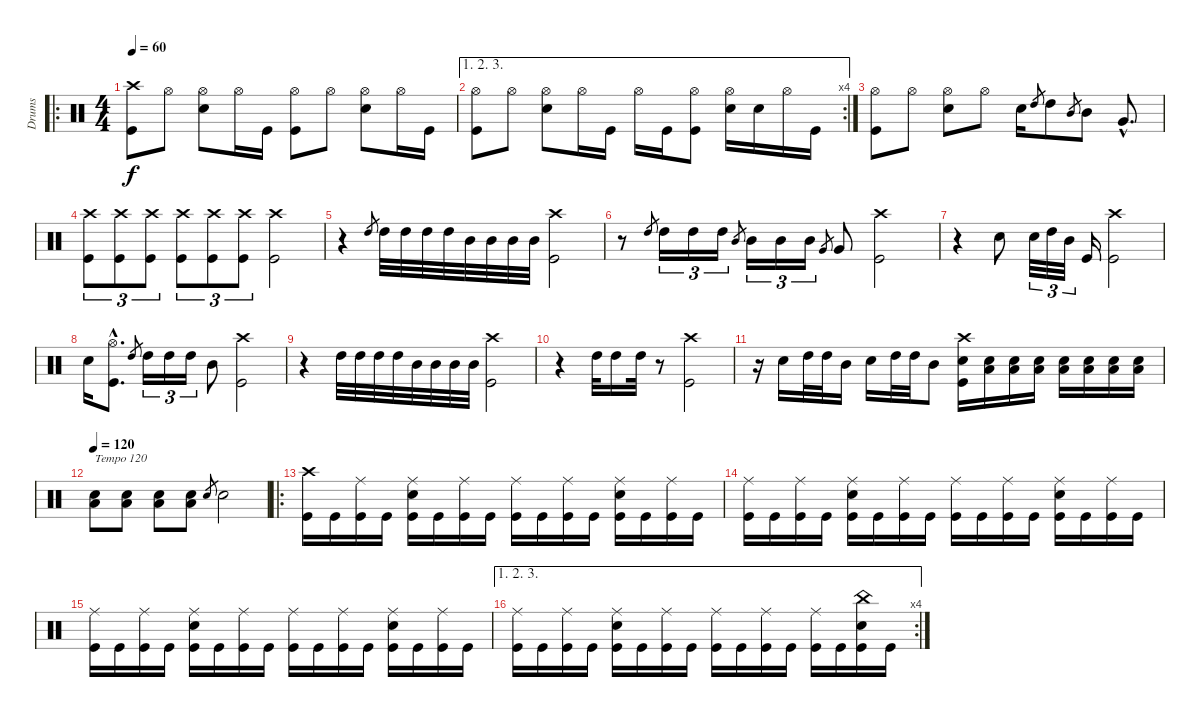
\track ("Drums" "Drums") {instrument percussion}
\staff {score}
\articulation defaults
\ro
\ts (4 4)
\tempo 60
\clef neutral
\ks c
("Crash high (hit)" "Kick (hit)").8{dy f} "Hi-Hat (open)".8 ("Hi-Hat (open)" "Electric Snare (hit)").8 "Hi-Hat (open)".16 "Kick (hit)".16 ("Hi-Hat (open)" "Kick (hit)").8 "Hi-Hat (open)".8 ("Hi-Hat (open)" "Electric Snare (hit)").8 "Hi-Hat (open)".16 "Kick (hit)".16 |
\ae (1 2 3)
\rc 4
("Hi-Hat (open)" "Kick (hit)").8 "Hi-Hat (open)".8 ("Hi-Hat (open)" "Electric Snare (hit)").8 "Hi-Hat (open)".16 "Kick (hit)".16 "Hi-Hat (open)".16 "Kick (hit)".16 ("Hi-Hat (open)" "Kick (hit)").8 ("Hi-Hat (open)" "Electric Snare (hit)").16 "Electric Snare (hit)".16 "Hi-Hat (open)".16 "Kick (hit)".16 |
("Hi-Hat (open)" "Kick (hit)").8 "Hi-Hat (open)".8 ("Hi-Hat (open)" "Electric Snare (hit)").8 "Hi-Hat (open)".8 "Electric Snare (hit)".16 "High Tom (hit)".8{gr} "High Tom (hit)".8 "Mid Tom (hit)".8{gr} "Mid Tom (hit)".8 "Very Low Tom (hit)"{hac}.8{d} |
("Crash high (hit)" "Kick (hit)").8{tu (3 2)} ("Crash high (hit)" "Kick (hit)").8{tu (3 2)} ("Crash high (hit)" "Kick (hit)").8{tu (3 2)} ("Crash high (hit)" "Kick (hit)").8{tu (3 2)} ("Crash high (hit)" "Kick (hit)").8{tu (3 2)} ("Crash high (hit)" "Kick (hit)").8{tu (3 2)} ("Crash high (hit)" "Kick (hit)").2 |
r.4 "High Tom (hit)".8{gr} "High Tom (hit)".32 "High Tom (hit)".32 "High Tom (hit)".32 "High Tom (hit)".32 "Mid Tom (hit)".32 "Mid Tom (hit)".32 "Mid Tom (hit)".32 "Mid Tom (hit)".32 ("Crash high (hit)" "Kick (hit)").2 |
r.8 "High Tom (hit)".8{gr} "High Tom (hit)".16{tu (3 2)} "High Tom (hit)".16{tu (3 2)} "High Tom (hit)".16{tu (3 2)} "Mid Tom (hit)".8{gr} "Mid Tom (hit)".16{tu (3 2)} "Mid Tom (hit)".16{tu (3 2)} "Mid Tom (hit)".16{tu (3 2)} "Very Low Tom (hit)".8{gr} "Very Low Tom (hit)".8 ("Crash high (hit)" "Kick (hit)").2 |
r.4 "Electric Snare (hit)".8 "Electric Snare (hit)".32{tu (3 2)} "High Tom (hit)".32{tu (3 2)} "Mid Tom (hit)".32{tu (3 2)} "Kick (hit)".16 ("Crash high (hit)" "Kick (hit)").2 |
"Electric Snare (hit)".16 ("Hi-Hat (open)"{hac} "Kick (hit)"{hac}).8{d} "High Tom (hit)".8{gr} "High Tom (hit)".16{tu (3 2)} "High Tom (hit)".16{tu (3 2)} "High Tom (hit)".16{tu (3 2)} "Mid Tom (hit)".8 ("Crash high (hit)" "Kick (hit)").2 |
r.4 "High Tom (hit)".32 "High Tom (hit)".32 "High Tom (hit)".32 "High Tom (hit)".32 "Mid Tom (hit)".32 "Mid Tom (hit)".32 "Mid Tom (hit)".32 "Mid Tom (hit)".32 ("Crash high (hit)" "Kick (hit)").2 |
r.4 "High Tom (hit)".32 "High Tom (hit)".16 "High Tom (hit)".32 r.8 ("Crash high (hit)" "Kick (hit)").2 |
r.16 "Electric Snare (hit)".16 "High Tom (hit)".32 "High Tom (hit)".32 "Mid Tom (hit)".16 "Electric Snare (hit)".16 "High Tom (hit)".32 "High Tom (hit)".32 "Mid Tom (hit)".8 ("Crash high (hit)" "Electric Snare (hit)" "Kick (hit)").16 ("Low Tom (hit)" "Electric Snare (hit)").16 ("Low Tom (hit)" "Electric Snare (hit)").16 ("Low Tom (hit)" "Electric Snare (hit)").16 ("Low Tom (hit)" "Electric Snare (hit)").16 ("Low Tom (hit)" "Electric Snare (hit)").16 ("Low Tom (hit)" "Electric Snare (hit)").16 ("Low Tom (hit)" "Electric Snare (hit)").16 |
\tempo 120
("Low Tom (hit)" "Electric Snare (hit)").8{txt "Tempo 120"} ("Low Tom (hit)" "Electric Snare (hit)").8 ("Low Tom (hit)" "Electric Snare (hit)").8 ("Low Tom (hit)" "Electric Snare (hit)").8 "Electric Snare (hit)".8{gr} "Electric Snare (hit)".2 |
\ro
("Crash high (hit)" "Kick (hit)").16 "Kick (hit)".16 ("Ride (middle)" "Kick (hit)").16 "Kick (hit)".16 ("Ride (middle)" "Electric Snare (hit)" "Kick (hit)").16 "Kick (hit)".16 ("Ride (middle)" "Kick (hit)").16 "Kick (hit)".16 ("Ride (middle)" "Kick (hit)").16 "Kick (hit)".16 ("Ride (middle)" "Kick (hit)").16 "Kick (hit)".16 ("Ride (middle)" "Electric Snare (hit)" "Kick (hit)").16 "Kick (hit)".16 ("Ride (middle)" "Kick (hit)").16 "Kick (hit)".16 |
("Ride (middle)" "Kick (hit)").16 "Kick (hit)".16 ("Ride (middle)" "Kick (hit)").16 "Kick (hit)".16 ("Ride (middle)" "Electric Snare (hit)" "Kick (hit)").16 "Kick (hit)".16 ("Ride (middle)" "Kick (hit)").16 "Kick (hit)".16 ("Ride (middle)" "Kick (hit)").16 "Kick (hit)".16 ("Ride (middle)" "Kick (hit)").16 "Kick (hit)".16 ("Ride (middle)" "Electric Snare (hit)" "Kick (hit)").16 "Kick (hit)".16 ("Ride (middle)" "Kick (hit)").16 "Kick (hit)".16 |
("Ride (middle)" "Kick (hit)").16 "Kick (hit)".16 ("Ride (middle)" "Kick (hit)").16 "Kick (hit)".16 ("Ride (middle)" "Electric Snare (hit)" "Kick (hit)").16 "Kick (hit)".16 ("Ride (middle)" "Kick (hit)").16 "Kick (hit)".16 ("Ride (middle)" "Kick (hit)").16 "Kick (hit)".16 ("Ride (middle)" "Kick (hit)").16 "Kick (hit)".16 ("Ride (middle)" "Electric Snare (hit)" "Kick (hit)").16 "Kick (hit)".16 ("Ride (middle)" "Kick (hit)").16 "Kick (hit)".16 |
\ae (1 2 3)
\rc 4
("Ride (middle)" "Kick (hit)").16 "Kick (hit)".16 ("Ride (middle)" "Kick (hit)").16 "Kick (hit)".16 ("Ride (middle)" "Electric Snare (hit)" "Kick (hit)").16 "Kick (hit)".16 ("Ride (middle)" "Kick (hit)").16 "Kick (hit)".16 ("Ride (middle)" "Kick (hit)").16 "Kick (hit)".16 ("Ride (middle)" "Kick (hit)").16 "Kick (hit)".16 ("Ride (middle)" "Kick (hit)").16 "Kick (hit)".16 ("China (hit)" "Electric Snare (hit)" "Kick (hit)").16 "Kick (hit)".16
